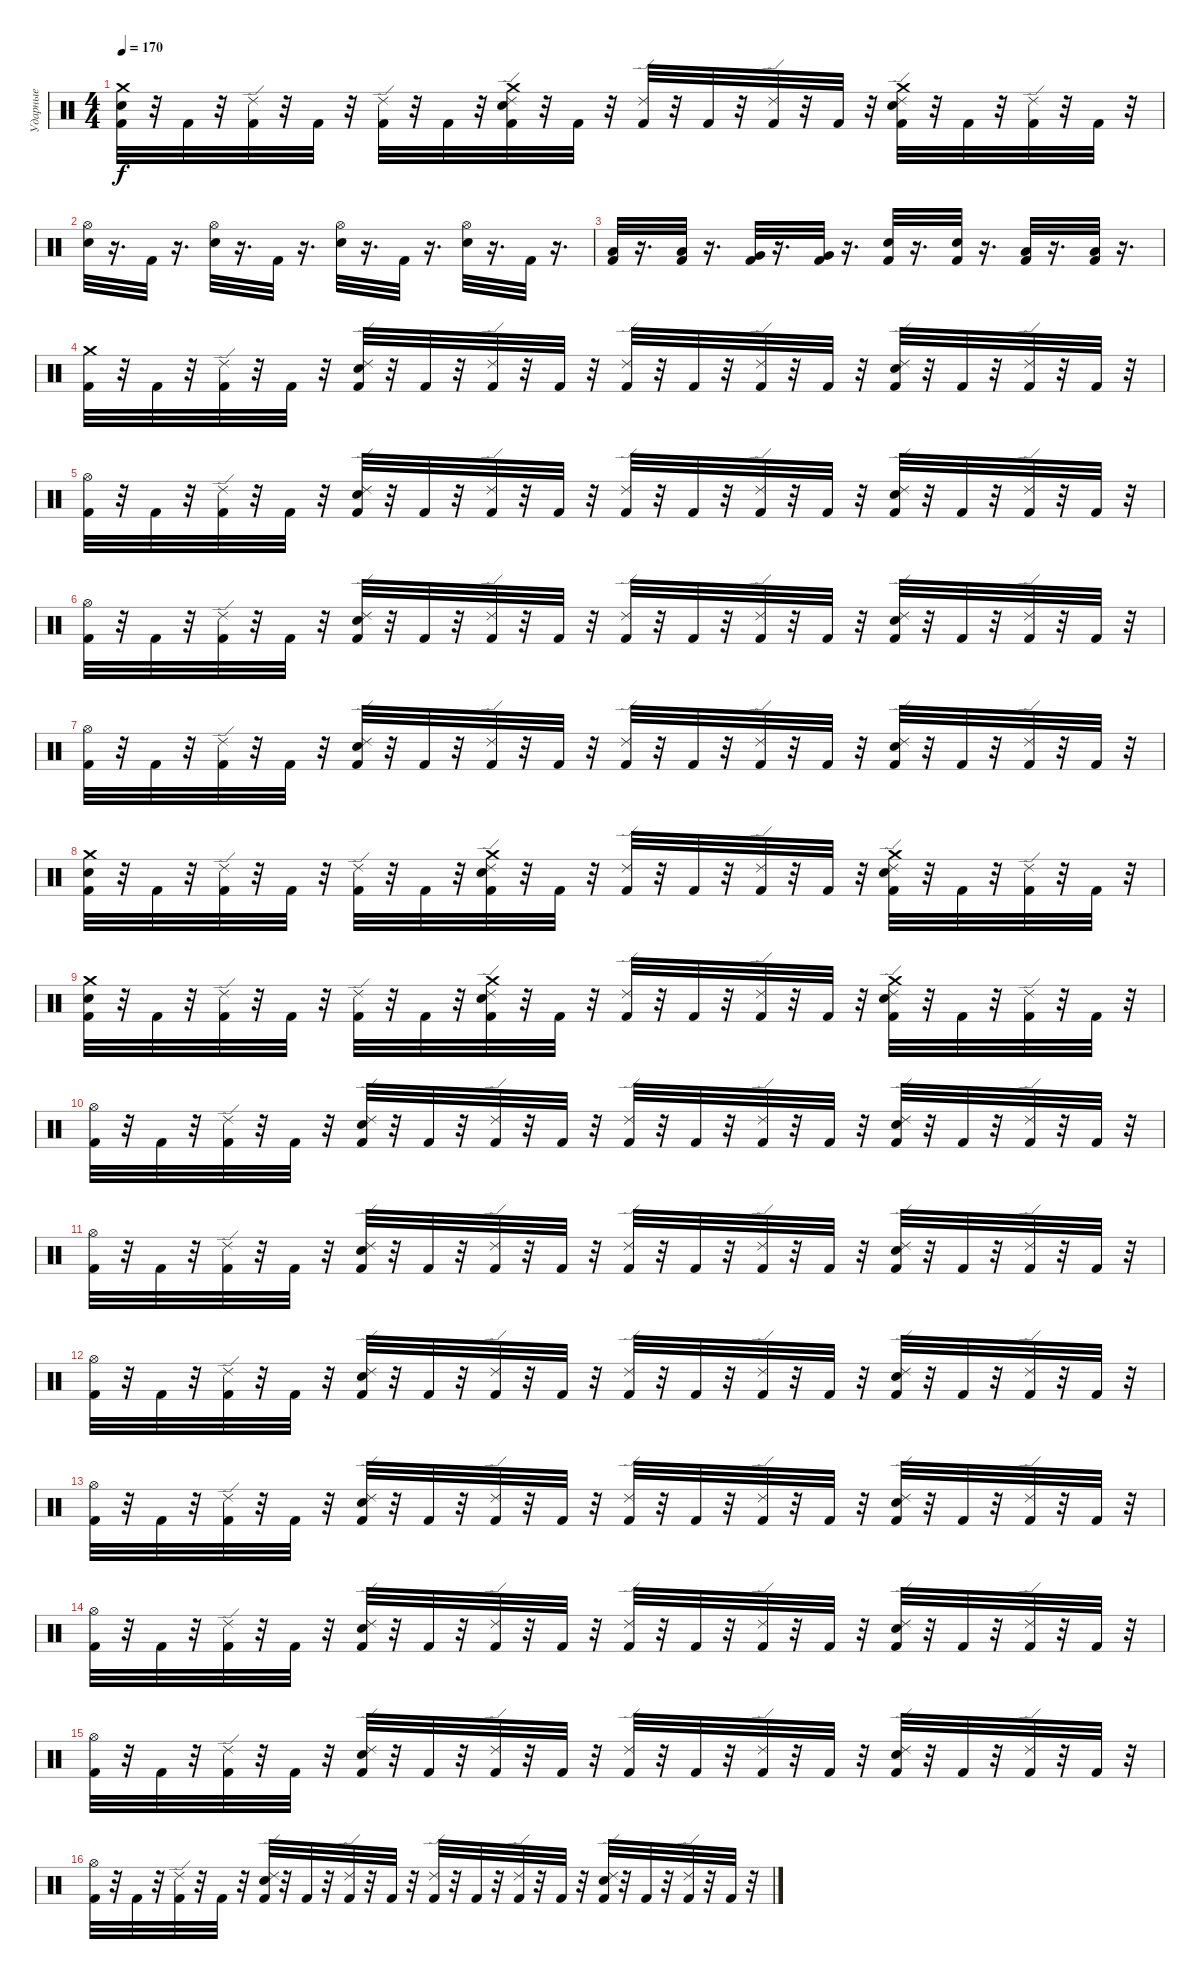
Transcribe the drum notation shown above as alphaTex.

\track ("Ударные" "Ударные") {instrument percussion}
\staff {score}
\articulation defaults
\ts (4 4)
\tempo 170
\clef neutral
\ks c
("Crash medium (hit)" "Electric Snare (hit)" "Kick (hit) 2").32{dy f} r.32 "Kick (hit) 2".32 r.32 ("Ride (edge) 2" "Kick (hit) 2").32 r.32 "Kick (hit) 2".32 r.32 ("Ride (edge) 2" "Kick (hit) 2").32 r.32 "Kick (hit) 2".32 r.32 ("Crash medium (hit)" "Ride (edge) 2" "Electric Snare (hit)" "Kick (hit) 2").32 r.32 "Kick (hit) 2".32 r.32 ("Ride (edge) 2" "Kick (hit) 2").32 r.32 "Kick (hit) 2".32 r.32 ("Ride (edge) 2" "Kick (hit) 2").32 r.32 "Kick (hit) 2".32 r.32 ("Crash medium (hit)" "Ride (edge) 2" "Electric Snare (hit)" "Kick (hit) 2").32 r.32 "Kick (hit) 2".32 r.32 ("Ride (edge) 2" "Kick (hit) 2").32 r.32 "Kick (hit) 2".32 r.32 |
("Electric Snare (hit)" "Hi-Hat (open)").32 r.16{d} "Kick (hit) 2".32 r.16{d} ("Electric Snare (hit)" "Hi-Hat (open)").32 r.16{d} "Kick (hit) 2".32 r.16{d} ("Electric Snare (hit)" "Hi-Hat (open)").32 r.16{d} "Kick (hit) 2".32 r.16{d} ("Electric Snare (hit)" "Hi-Hat (open)").32 r.16{d} "Kick (hit) 2".32 r.16{d} |
("Kick (hit) 2" "Low Tom (hit)").32 r.16{d} ("Kick (hit) 2" "Low Tom (hit)").32 r.16{d} ("Kick (hit) 2" "Very Low Tom (hit)").32 r.16{d} ("Kick (hit) 2" "Very Low Tom (hit)").32 r.16{d} ("Kick (hit) 2" "Electric Snare (hit)").32 r.16{d} ("Kick (hit) 2" "Electric Snare (hit)").32 r.16{d} ("Kick (hit) 2" "Low Floor Tom (hit)").32 r.16{d} ("Kick (hit) 2" "Low Floor Tom (hit)").32 r.16{d} |
("Crash medium (hit)" "Kick (hit) 2").32 r.32 "Kick (hit) 2".32 r.32 ("Ride (edge) 2" "Kick (hit) 2").32 r.32 "Kick (hit) 2".32 r.32 ("Ride (edge) 2" "Electric Snare (hit)" "Kick (hit) 2").32 r.32 "Kick (hit) 2".32 r.32 ("Ride (edge) 2" "Kick (hit) 2").32 r.32 "Kick (hit) 2".32 r.32 ("Ride (edge) 2" "Kick (hit) 2").32 r.32 "Kick (hit) 2".32 r.32 ("Ride (edge) 2" "Kick (hit) 2").32 r.32 "Kick (hit) 2".32 r.32 ("Ride (edge) 2" "Electric Snare (hit)" "Kick (hit) 2").32 r.32 "Kick (hit) 2".32 r.32 ("Ride (edge) 2" "Kick (hit) 2").32 r.32 "Kick (hit) 2".32 r.32 |
("Hi-Hat (open)" "Kick (hit) 2").32 r.32 "Kick (hit) 2".32 r.32 ("Ride (edge) 2" "Kick (hit) 2").32 r.32 "Kick (hit) 2".32 r.32 ("Ride (edge) 2" "Electric Snare (hit)" "Kick (hit) 2").32 r.32 "Kick (hit) 2".32 r.32 ("Ride (edge) 2" "Kick (hit) 2").32 r.32 "Kick (hit) 2".32 r.32 ("Ride (edge) 2" "Kick (hit) 2").32 r.32 "Kick (hit) 2".32 r.32 ("Ride (edge) 2" "Kick (hit) 2").32 r.32 "Kick (hit) 2".32 r.32 ("Ride (edge) 2" "Electric Snare (hit)" "Kick (hit) 2").32 r.32 "Kick (hit) 2".32 r.32 ("Ride (edge) 2" "Kick (hit) 2").32 r.32 "Kick (hit) 2".32 r.32 |
("Hi-Hat (open)" "Kick (hit) 2").32 r.32 "Kick (hit) 2".32 r.32 ("Ride (edge) 2" "Kick (hit) 2").32 r.32 "Kick (hit) 2".32 r.32 ("Ride (edge) 2" "Electric Snare (hit)" "Kick (hit) 2").32 r.32 "Kick (hit) 2".32 r.32 ("Ride (edge) 2" "Kick (hit) 2").32 r.32 "Kick (hit) 2".32 r.32 ("Ride (edge) 2" "Kick (hit) 2").32 r.32 "Kick (hit) 2".32 r.32 ("Ride (edge) 2" "Kick (hit) 2").32 r.32 "Kick (hit) 2".32 r.32 ("Ride (edge) 2" "Electric Snare (hit)" "Kick (hit) 2").32 r.32 "Kick (hit) 2".32 r.32 ("Ride (edge) 2" "Kick (hit) 2").32 r.32 "Kick (hit) 2".32 r.32 |
("Hi-Hat (open)" "Kick (hit) 2").32 r.32 "Kick (hit) 2".32 r.32 ("Ride (edge) 2" "Kick (hit) 2").32 r.32 "Kick (hit) 2".32 r.32 ("Ride (edge) 2" "Electric Snare (hit)" "Kick (hit) 2").32 r.32 "Kick (hit) 2".32 r.32 ("Ride (edge) 2" "Kick (hit) 2").32 r.32 "Kick (hit) 2".32 r.32 ("Ride (edge) 2" "Kick (hit) 2").32 r.32 "Kick (hit) 2".32 r.32 ("Ride (edge) 2" "Kick (hit) 2").32 r.32 "Kick (hit) 2".32 r.32 ("Ride (edge) 2" "Electric Snare (hit)" "Kick (hit) 2").32 r.32 "Kick (hit) 2".32 r.32 ("Ride (edge) 2" "Kick (hit) 2").32 r.32 "Kick (hit) 2".32 r.32 |
("Crash medium (hit)" "Electric Snare (hit)" "Kick (hit) 2").32 r.32 "Kick (hit) 2".32 r.32 ("Ride (edge) 2" "Kick (hit) 2").32 r.32 "Kick (hit) 2".32 r.32 ("Ride (edge) 2" "Kick (hit) 2").32 r.32 "Kick (hit) 2".32 r.32 ("Crash medium (hit)" "Ride (edge) 2" "Electric Snare (hit)" "Kick (hit) 2").32 r.32 "Kick (hit) 2".32 r.32 ("Ride (edge) 2" "Kick (hit) 2").32 r.32 "Kick (hit) 2".32 r.32 ("Ride (edge) 2" "Kick (hit) 2").32 r.32 "Kick (hit) 2".32 r.32 ("Crash medium (hit)" "Ride (edge) 2" "Electric Snare (hit)" "Kick (hit) 2").32 r.32 "Kick (hit) 2".32 r.32 ("Ride (edge) 2" "Kick (hit) 2").32 r.32 "Kick (hit) 2".32 r.32 |
("Crash medium (hit)" "Electric Snare (hit)" "Kick (hit) 2").32 r.32 "Kick (hit) 2".32 r.32 ("Ride (edge) 2" "Kick (hit) 2").32 r.32 "Kick (hit) 2".32 r.32 ("Ride (edge) 2" "Kick (hit) 2").32 r.32 "Kick (hit) 2".32 r.32 ("Crash medium (hit)" "Ride (edge) 2" "Electric Snare (hit)" "Kick (hit) 2").32 r.32 "Kick (hit) 2".32 r.32 ("Ride (edge) 2" "Kick (hit) 2").32 r.32 "Kick (hit) 2".32 r.32 ("Ride (edge) 2" "Kick (hit) 2").32 r.32 "Kick (hit) 2".32 r.32 ("Crash medium (hit)" "Ride (edge) 2" "Electric Snare (hit)" "Kick (hit) 2").32 r.32 "Kick (hit) 2".32 r.32 ("Ride (edge) 2" "Kick (hit) 2").32 r.32 "Kick (hit) 2".32 r.32 |
("Hi-Hat (open)" "Kick (hit) 2").32 r.32 "Kick (hit) 2".32 r.32 ("Ride (edge) 2" "Kick (hit) 2").32 r.32 "Kick (hit) 2".32 r.32 ("Ride (edge) 2" "Electric Snare (hit)" "Kick (hit) 2").32 r.32 "Kick (hit) 2".32 r.32 ("Ride (edge) 2" "Kick (hit) 2").32 r.32 "Kick (hit) 2".32 r.32 ("Ride (edge) 2" "Kick (hit) 2").32 r.32 "Kick (hit) 2".32 r.32 ("Ride (edge) 2" "Kick (hit) 2").32 r.32 "Kick (hit) 2".32 r.32 ("Ride (edge) 2" "Electric Snare (hit)" "Kick (hit) 2").32 r.32 "Kick (hit) 2".32 r.32 ("Ride (edge) 2" "Kick (hit) 2").32 r.32 "Kick (hit) 2".32 r.32 |
("Hi-Hat (open)" "Kick (hit) 2").32 r.32 "Kick (hit) 2".32 r.32 ("Ride (edge) 2" "Kick (hit) 2").32 r.32 "Kick (hit) 2".32 r.32 ("Ride (edge) 2" "Electric Snare (hit)" "Kick (hit) 2").32 r.32 "Kick (hit) 2".32 r.32 ("Ride (edge) 2" "Kick (hit) 2").32 r.32 "Kick (hit) 2".32 r.32 ("Ride (edge) 2" "Kick (hit) 2").32 r.32 "Kick (hit) 2".32 r.32 ("Ride (edge) 2" "Kick (hit) 2").32 r.32 "Kick (hit) 2".32 r.32 ("Ride (edge) 2" "Electric Snare (hit)" "Kick (hit) 2").32 r.32 "Kick (hit) 2".32 r.32 ("Ride (edge) 2" "Kick (hit) 2").32 r.32 "Kick (hit) 2".32 r.32 |
("Hi-Hat (open)" "Kick (hit) 2").32 r.32 "Kick (hit) 2".32 r.32 ("Ride (edge) 2" "Kick (hit) 2").32 r.32 "Kick (hit) 2".32 r.32 ("Ride (edge) 2" "Electric Snare (hit)" "Kick (hit) 2").32 r.32 "Kick (hit) 2".32 r.32 ("Ride (edge) 2" "Kick (hit) 2").32 r.32 "Kick (hit) 2".32 r.32 ("Ride (edge) 2" "Kick (hit) 2").32 r.32 "Kick (hit) 2".32 r.32 ("Ride (edge) 2" "Kick (hit) 2").32 r.32 "Kick (hit) 2".32 r.32 ("Ride (edge) 2" "Electric Snare (hit)" "Kick (hit) 2").32 r.32 "Kick (hit) 2".32 r.32 ("Ride (edge) 2" "Kick (hit) 2").32 r.32 "Kick (hit) 2".32 r.32 |
("Hi-Hat (open)" "Kick (hit) 2").32 r.32 "Kick (hit) 2".32 r.32 ("Ride (edge) 2" "Kick (hit) 2").32 r.32 "Kick (hit) 2".32 r.32 ("Ride (edge) 2" "Electric Snare (hit)" "Kick (hit) 2").32 r.32 "Kick (hit) 2".32 r.32 ("Ride (edge) 2" "Kick (hit) 2").32 r.32 "Kick (hit) 2".32 r.32 ("Ride (edge) 2" "Kick (hit) 2").32 r.32 "Kick (hit) 2".32 r.32 ("Ride (edge) 2" "Kick (hit) 2").32 r.32 "Kick (hit) 2".32 r.32 ("Ride (edge) 2" "Electric Snare (hit)" "Kick (hit) 2").32 r.32 "Kick (hit) 2".32 r.32 ("Ride (edge) 2" "Kick (hit) 2").32 r.32 "Kick (hit) 2".32 r.32 |
("Hi-Hat (open)" "Kick (hit) 2").32 r.32 "Kick (hit) 2".32 r.32 ("Ride (edge) 2" "Kick (hit) 2").32 r.32 "Kick (hit) 2".32 r.32 ("Ride (edge) 2" "Electric Snare (hit)" "Kick (hit) 2").32 r.32 "Kick (hit) 2".32 r.32 ("Ride (edge) 2" "Kick (hit) 2").32 r.32 "Kick (hit) 2".32 r.32 ("Ride (edge) 2" "Kick (hit) 2").32 r.32 "Kick (hit) 2".32 r.32 ("Ride (edge) 2" "Kick (hit) 2").32 r.32 "Kick (hit) 2".32 r.32 ("Ride (edge) 2" "Electric Snare (hit)" "Kick (hit) 2").32 r.32 "Kick (hit) 2".32 r.32 ("Ride (edge) 2" "Kick (hit) 2").32 r.32 "Kick (hit) 2".32 r.32 |
("Hi-Hat (open)" "Kick (hit) 2").32 r.32 "Kick (hit) 2".32 r.32 ("Ride (edge) 2" "Kick (hit) 2").32 r.32 "Kick (hit) 2".32 r.32 ("Ride (edge) 2" "Electric Snare (hit)" "Kick (hit) 2").32 r.32 "Kick (hit) 2".32 r.32 ("Ride (edge) 2" "Kick (hit) 2").32 r.32 "Kick (hit) 2".32 r.32 ("Ride (edge) 2" "Kick (hit) 2").32 r.32 "Kick (hit) 2".32 r.32 ("Ride (edge) 2" "Kick (hit) 2").32 r.32 "Kick (hit) 2".32 r.32 ("Ride (edge) 2" "Electric Snare (hit)" "Kick (hit) 2").32 r.32 "Kick (hit) 2".32 r.32 ("Ride (edge) 2" "Kick (hit) 2").32 r.32 "Kick (hit) 2".32 r.32 |
("Hi-Hat (open)" "Kick (hit) 2").32 r.32 "Kick (hit) 2".32 r.32 ("Ride (edge) 2" "Kick (hit) 2").32 r.32 "Kick (hit) 2".32 r.32 ("Ride (edge) 2" "Electric Snare (hit)" "Kick (hit) 2").32 r.32 "Kick (hit) 2".32 r.32 ("Ride (edge) 2" "Kick (hit) 2").32 r.32 "Kick (hit) 2".32 r.32 ("Ride (edge) 2" "Kick (hit) 2").32 r.32 "Kick (hit) 2".32 r.32 ("Ride (edge) 2" "Kick (hit) 2").32 r.32 "Kick (hit) 2".32 r.32 ("Ride (edge) 2" "Electric Snare (hit)" "Kick (hit) 2").32 r.32 "Kick (hit) 2".32 r.32 ("Ride (edge) 2" "Kick (hit) 2").32 r.32 "Kick (hit) 2".32 r.32
